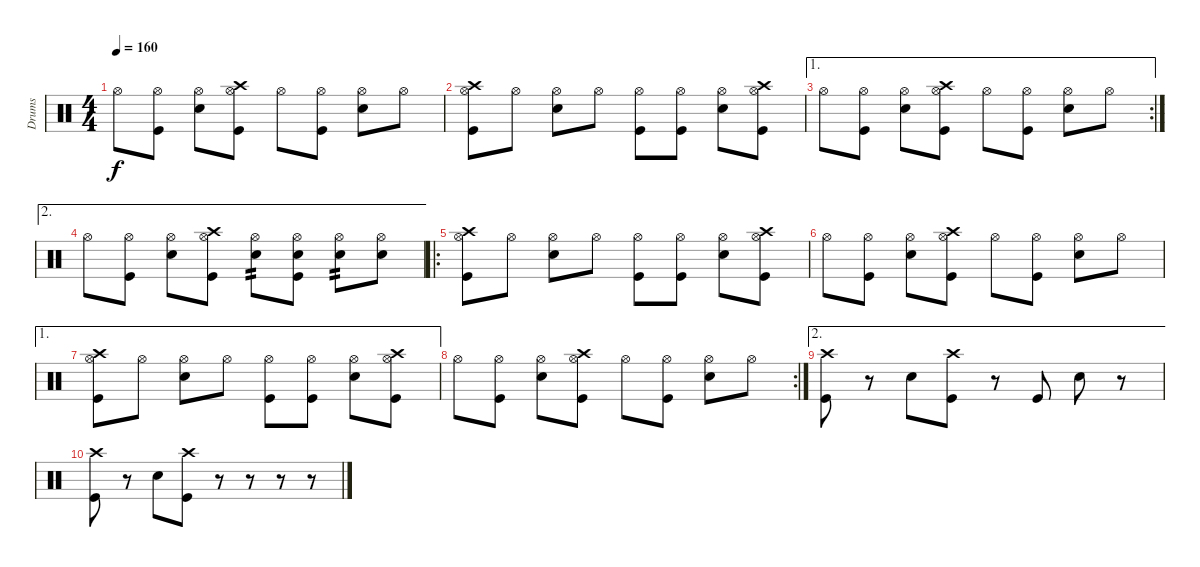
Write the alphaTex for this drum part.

\track ("Drums" "Drums") {instrument percussion}
\staff {score}
\articulation defaults
\ts (4 4)
\tempo 160
\clef neutral
\ks c "Hi-Hat (open)".8{dy f}
("Kick (hit)" "Hi-Hat (open)").8 ("Snare (hit) 2" "Hi-Hat (open)").8 ("Kick (hit)" "Hi-Hat (open)" "Crash high (hit)").8 "Hi-Hat (open)".8 ("Kick (hit)" "Hi-Hat (open)").8 ("Snare (hit) 2" "Hi-Hat (open)").8 "Hi-Hat (open)".8 |
("Kick (hit)" "Hi-Hat (open)" "Crash high (hit)").8 "Hi-Hat (open)".8 ("Snare (hit) 2" "Hi-Hat (open)").8 "Hi-Hat (open)".8 ("Kick (hit)" "Hi-Hat (open)").8 ("Kick (hit)" "Hi-Hat (open)").8 ("Snare (hit) 2" "Hi-Hat (open)").8 ("Kick (hit)" "Hi-Hat (open)" "Crash high (hit)").8 |
\ae 1
\rc 2 "Hi-Hat (open)".8
("Kick (hit)" "Hi-Hat (open)").8 ("Snare (hit) 2" "Hi-Hat (open)").8 ("Kick (hit)" "Hi-Hat (open)" "Crash high (hit)").8 "Hi-Hat (open)".8 ("Kick (hit)" "Hi-Hat (open)").8 ("Snare (hit) 2" "Hi-Hat (open)").8 "Hi-Hat (open)".8 |
\ae 2 "Hi-Hat (open)".8
("Kick (hit)" "Hi-Hat (open)").8 ("Snare (hit) 2" "Hi-Hat (open)").8 ("Kick (hit)" "Hi-Hat (open)" "Crash high (hit)").8 ("Snare (hit) 2" "Hi-Hat (open)").8{tp 2} ("Kick (hit)" "Snare (hit) 2" "Hi-Hat (open)").8 ("Snare (hit) 2" "Hi-Hat (open)").8{tp 2} ("Snare (hit) 2" "Hi-Hat (open)").8 |
\ro
("Kick (hit)" "Hi-Hat (open)" "Crash high (hit)").8 "Hi-Hat (open)".8 ("Snare (hit) 2" "Hi-Hat (open)").8 "Hi-Hat (open)".8 ("Kick (hit)" "Hi-Hat (open)").8 ("Kick (hit)" "Hi-Hat (open)").8 ("Snare (hit) 2" "Hi-Hat (open)").8 ("Kick (hit)" "Hi-Hat (open)" "Crash high (hit)").8 |
"Hi-Hat (open)".8 ("Kick (hit)" "Hi-Hat (open)").8 ("Snare (hit) 2" "Hi-Hat (open)").8 ("Kick (hit)" "Hi-Hat (open)" "Crash high (hit)").8 "Hi-Hat (open)".8 ("Kick (hit)" "Hi-Hat (open)").8 ("Snare (hit) 2" "Hi-Hat (open)").8 "Hi-Hat (open)".8 |
\ae 1
("Kick (hit)" "Hi-Hat (open)" "Crash high (hit)").8 "Hi-Hat (open)".8 ("Snare (hit) 2" "Hi-Hat (open)").8 "Hi-Hat (open)".8 ("Kick (hit)" "Hi-Hat (open)").8 ("Kick (hit)" "Hi-Hat (open)").8 ("Snare (hit) 2" "Hi-Hat (open)").8 ("Kick (hit)" "Hi-Hat (open)" "Crash high (hit)").8 |
\rc 2 "Hi-Hat (open)".8
("Kick (hit)" "Hi-Hat (open)").8 ("Snare (hit) 2" "Hi-Hat (open)").8 ("Kick (hit)" "Hi-Hat (open)" "Crash high (hit)").8 "Hi-Hat (open)".8 ("Kick (hit)" "Hi-Hat (open)").8 ("Snare (hit) 2" "Hi-Hat (open)").8 "Hi-Hat (open)".8 |
\ae 2
("Kick (hit)" "Crash high (hit)").8 r.8 "Snare (hit) 2".8 ("Kick (hit)" "Crash high (hit)").8 r.8 "Kick (hit)".8 "Snare (hit) 2".8 r.8 |
("Kick (hit)" "Crash high (hit)").8 r.8 "Snare (hit) 2".8 ("Kick (hit)" "Crash high (hit)").8 r.8 r.8 r.8 r.8
